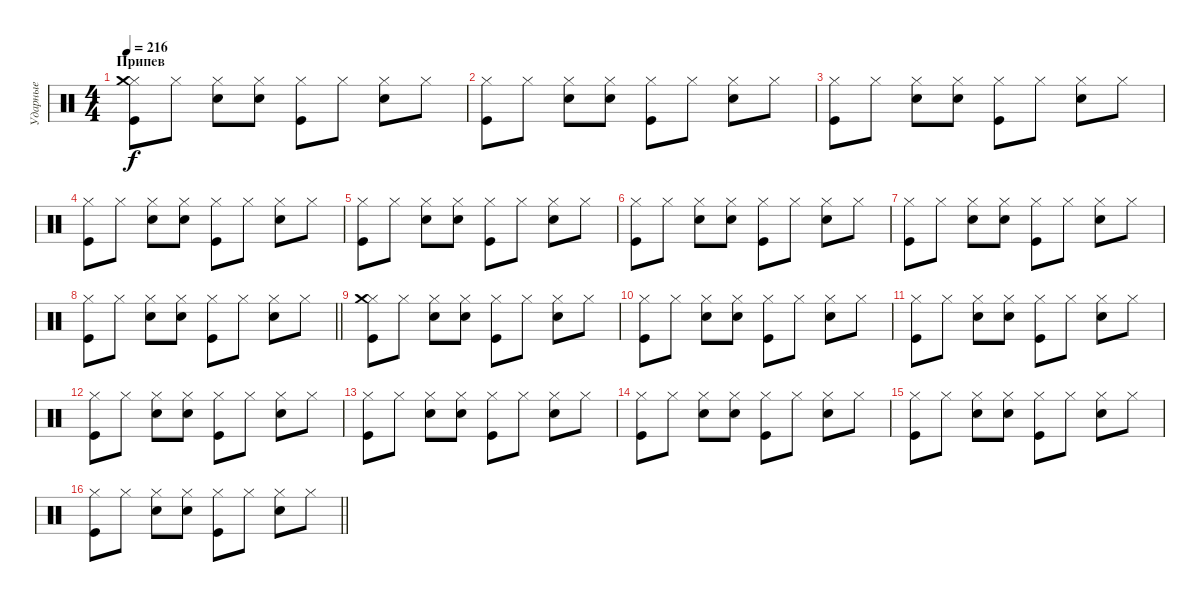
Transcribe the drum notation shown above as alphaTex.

\track ("Ударные" "Ударные") {instrument percussion}
\staff {score}
\articulation defaults
\ts (4 4)
\section ("" "Припев")
\tempo 216
\clef neutral
\ks c
("Hi-Hat (closed)" "Kick (hit)" "Crash medium (hit)").8{dy f} "Hi-Hat (closed)".8 ("Hi-Hat (closed)" "Snare (hit) 2").8 ("Hi-Hat (closed)" "Snare (hit) 2").8 ("Hi-Hat (closed)" "Kick (hit)").8 "Hi-Hat (closed)".8 ("Hi-Hat (closed)" "Snare (hit) 2").8 "Hi-Hat (closed)".8 |
("Hi-Hat (closed)" "Kick (hit)").8 "Hi-Hat (closed)".8 ("Hi-Hat (closed)" "Snare (hit) 2").8 ("Hi-Hat (closed)" "Snare (hit) 2").8 ("Hi-Hat (closed)" "Kick (hit)").8 "Hi-Hat (closed)".8 ("Hi-Hat (closed)" "Snare (hit) 2").8 "Hi-Hat (closed)".8 |
("Hi-Hat (closed)" "Kick (hit)").8 "Hi-Hat (closed)".8 ("Hi-Hat (closed)" "Snare (hit) 2").8 ("Hi-Hat (closed)" "Snare (hit) 2").8 ("Hi-Hat (closed)" "Kick (hit)").8 "Hi-Hat (closed)".8 ("Hi-Hat (closed)" "Snare (hit) 2").8 "Hi-Hat (closed)".8 |
("Hi-Hat (closed)" "Kick (hit)").8 "Hi-Hat (closed)".8 ("Hi-Hat (closed)" "Snare (hit) 2").8 ("Hi-Hat (closed)" "Snare (hit) 2").8 ("Hi-Hat (closed)" "Kick (hit)").8 "Hi-Hat (closed)".8 ("Hi-Hat (closed)" "Snare (hit) 2").8 "Hi-Hat (closed)".8 |
("Hi-Hat (closed)" "Kick (hit)").8 "Hi-Hat (closed)".8 ("Hi-Hat (closed)" "Snare (hit) 2").8 ("Hi-Hat (closed)" "Snare (hit) 2").8 ("Hi-Hat (closed)" "Kick (hit)").8 "Hi-Hat (closed)".8 ("Hi-Hat (closed)" "Snare (hit) 2").8 "Hi-Hat (closed)".8 |
("Hi-Hat (closed)" "Kick (hit)").8 "Hi-Hat (closed)".8 ("Hi-Hat (closed)" "Snare (hit) 2").8 ("Hi-Hat (closed)" "Snare (hit) 2").8 ("Hi-Hat (closed)" "Kick (hit)").8 "Hi-Hat (closed)".8 ("Hi-Hat (closed)" "Snare (hit) 2").8 "Hi-Hat (closed)".8 |
("Hi-Hat (closed)" "Kick (hit)").8 "Hi-Hat (closed)".8 ("Hi-Hat (closed)" "Snare (hit) 2").8 ("Hi-Hat (closed)" "Snare (hit) 2").8 ("Hi-Hat (closed)" "Kick (hit)").8 "Hi-Hat (closed)".8 ("Hi-Hat (closed)" "Snare (hit) 2").8 "Hi-Hat (closed)".8 |
\barLineRight lightlight
("Hi-Hat (closed)" "Kick (hit)").8 "Hi-Hat (closed)".8 ("Hi-Hat (closed)" "Snare (hit) 2").8 ("Hi-Hat (closed)" "Snare (hit) 2").8 ("Hi-Hat (closed)" "Kick (hit)").8 "Hi-Hat (closed)".8 ("Hi-Hat (closed)" "Snare (hit) 2").8 "Hi-Hat (closed)".8 |
("Hi-Hat (closed)" "Kick (hit)" "Crash medium (hit)").8 "Hi-Hat (closed)".8 ("Hi-Hat (closed)" "Snare (hit) 2").8 ("Hi-Hat (closed)" "Snare (hit) 2").8 ("Hi-Hat (closed)" "Kick (hit)").8 "Hi-Hat (closed)".8 ("Hi-Hat (closed)" "Snare (hit) 2").8 "Hi-Hat (closed)".8 |
("Hi-Hat (closed)" "Kick (hit)").8 "Hi-Hat (closed)".8 ("Hi-Hat (closed)" "Snare (hit) 2").8 ("Hi-Hat (closed)" "Snare (hit) 2").8 ("Hi-Hat (closed)" "Kick (hit)").8 "Hi-Hat (closed)".8 ("Hi-Hat (closed)" "Snare (hit) 2").8 "Hi-Hat (closed)".8 |
("Hi-Hat (closed)" "Kick (hit)").8 "Hi-Hat (closed)".8 ("Hi-Hat (closed)" "Snare (hit) 2").8 ("Hi-Hat (closed)" "Snare (hit) 2").8 ("Hi-Hat (closed)" "Kick (hit)").8 "Hi-Hat (closed)".8 ("Hi-Hat (closed)" "Snare (hit) 2").8 "Hi-Hat (closed)".8 |
("Hi-Hat (closed)" "Kick (hit)").8 "Hi-Hat (closed)".8 ("Hi-Hat (closed)" "Snare (hit) 2").8 ("Hi-Hat (closed)" "Snare (hit) 2").8 ("Hi-Hat (closed)" "Kick (hit)").8 "Hi-Hat (closed)".8 ("Hi-Hat (closed)" "Snare (hit) 2").8 "Hi-Hat (closed)".8 |
("Hi-Hat (closed)" "Kick (hit)").8 "Hi-Hat (closed)".8 ("Hi-Hat (closed)" "Snare (hit) 2").8 ("Hi-Hat (closed)" "Snare (hit) 2").8 ("Hi-Hat (closed)" "Kick (hit)").8 "Hi-Hat (closed)".8 ("Hi-Hat (closed)" "Snare (hit) 2").8 "Hi-Hat (closed)".8 |
("Hi-Hat (closed)" "Kick (hit)").8 "Hi-Hat (closed)".8 ("Hi-Hat (closed)" "Snare (hit) 2").8 ("Hi-Hat (closed)" "Snare (hit) 2").8 ("Hi-Hat (closed)" "Kick (hit)").8 "Hi-Hat (closed)".8 ("Hi-Hat (closed)" "Snare (hit) 2").8 "Hi-Hat (closed)".8 |
("Hi-Hat (closed)" "Kick (hit)").8 "Hi-Hat (closed)".8 ("Hi-Hat (closed)" "Snare (hit) 2").8 ("Hi-Hat (closed)" "Snare (hit) 2").8 ("Hi-Hat (closed)" "Kick (hit)").8 "Hi-Hat (closed)".8 ("Hi-Hat (closed)" "Snare (hit) 2").8 "Hi-Hat (closed)".8 |
\barLineRight lightlight
("Hi-Hat (closed)" "Kick (hit)").8 "Hi-Hat (closed)".8 ("Hi-Hat (closed)" "Snare (hit) 2").8 ("Hi-Hat (closed)" "Snare (hit) 2").8 ("Hi-Hat (closed)" "Kick (hit)").8 "Hi-Hat (closed)".8 ("Hi-Hat (closed)" "Snare (hit) 2").8 "Hi-Hat (closed)".8
